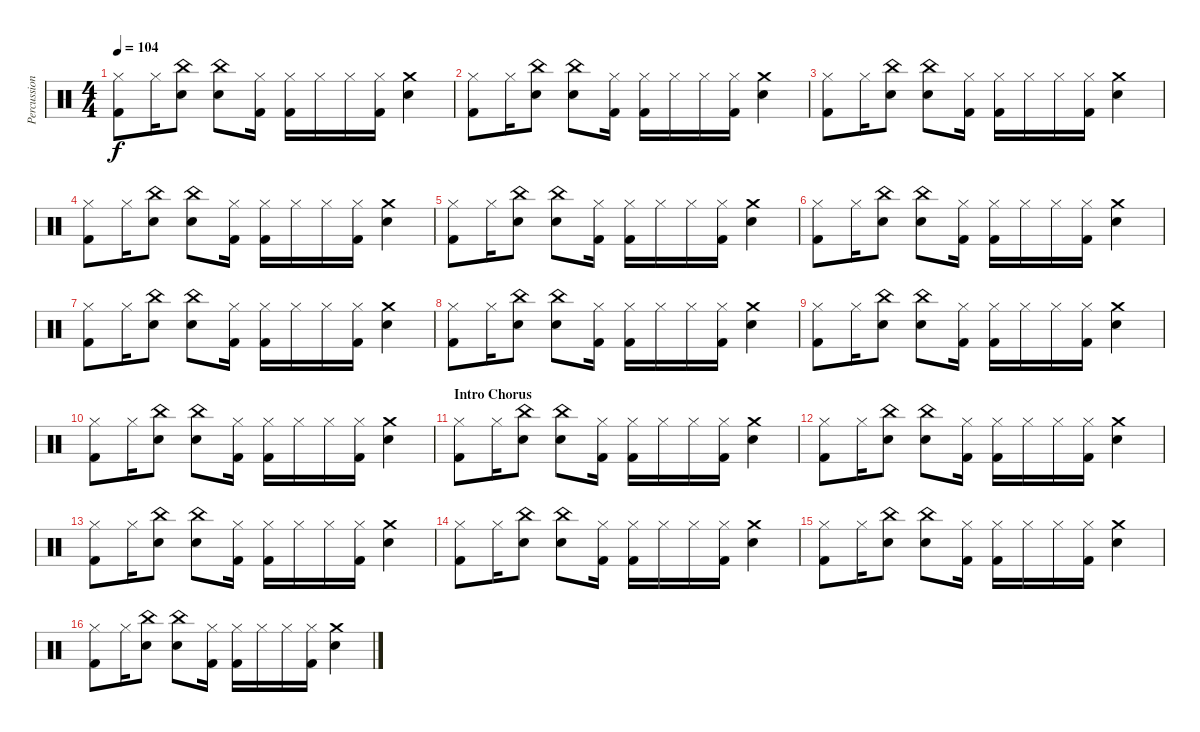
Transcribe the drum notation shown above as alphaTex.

\track ("Percussion" "Percussion") {instrument percussion}
\staff {score}
\articulation defaults
\ts (4 4)
\tempo 104
\clef neutral
\ks c
("Hi-Hat (closed)" "Kick (hit) 2").8{dy f} "Hi-Hat (closed)".16 ("Snare (hit) 2" "China (hit)").8 ("Snare (hit) 2" "China (hit)").8 ("Hi-Hat (closed)" "Kick (hit) 2").16 ("Hi-Hat (closed)" "Kick (hit) 2").16 "Hi-Hat (closed)".16 "Hi-Hat (closed)".16 ("Hi-Hat (closed)" "Kick (hit) 2").16 ("Crash medium (hit)" "Snare (hit) 2").4 |
("Hi-Hat (closed)" "Kick (hit) 2").8 "Hi-Hat (closed)".16 ("Snare (hit) 2" "China (hit)").8 ("Snare (hit) 2" "China (hit)").8 ("Hi-Hat (closed)" "Kick (hit) 2").16 ("Hi-Hat (closed)" "Kick (hit) 2").16 "Hi-Hat (closed)".16 "Hi-Hat (closed)".16 ("Hi-Hat (closed)" "Kick (hit) 2").16 ("Crash medium (hit)" "Snare (hit) 2").4 |
("Hi-Hat (closed)" "Kick (hit) 2").8 "Hi-Hat (closed)".16 ("Snare (hit) 2" "China (hit)").8 ("Snare (hit) 2" "China (hit)").8 ("Hi-Hat (closed)" "Kick (hit) 2").16 ("Hi-Hat (closed)" "Kick (hit) 2").16 "Hi-Hat (closed)".16 "Hi-Hat (closed)".16 ("Hi-Hat (closed)" "Kick (hit) 2").16 ("Crash medium (hit)" "Snare (hit) 2").4 |
("Hi-Hat (closed)" "Kick (hit) 2").8 "Hi-Hat (closed)".16 ("Snare (hit) 2" "China (hit)").8 ("Snare (hit) 2" "China (hit)").8 ("Hi-Hat (closed)" "Kick (hit) 2").16 ("Hi-Hat (closed)" "Kick (hit) 2").16 "Hi-Hat (closed)".16 "Hi-Hat (closed)".16 ("Hi-Hat (closed)" "Kick (hit) 2").16 ("Crash medium (hit)" "Snare (hit) 2").4 |
("Hi-Hat (closed)" "Kick (hit) 2").8 "Hi-Hat (closed)".16 ("Snare (hit) 2" "China (hit)").8 ("Snare (hit) 2" "China (hit)").8 ("Hi-Hat (closed)" "Kick (hit) 2").16 ("Hi-Hat (closed)" "Kick (hit) 2").16 "Hi-Hat (closed)".16 "Hi-Hat (closed)".16 ("Hi-Hat (closed)" "Kick (hit) 2").16 ("Crash medium (hit)" "Snare (hit) 2").4 |
("Hi-Hat (closed)" "Kick (hit) 2").8 "Hi-Hat (closed)".16 ("Snare (hit) 2" "China (hit)").8 ("Snare (hit) 2" "China (hit)").8 ("Hi-Hat (closed)" "Kick (hit) 2").16 ("Hi-Hat (closed)" "Kick (hit) 2").16 "Hi-Hat (closed)".16 "Hi-Hat (closed)".16 ("Hi-Hat (closed)" "Kick (hit) 2").16 ("Crash medium (hit)" "Snare (hit) 2").4 |
("Hi-Hat (closed)" "Kick (hit) 2").8 "Hi-Hat (closed)".16 ("Snare (hit) 2" "China (hit)").8 ("Snare (hit) 2" "China (hit)").8 ("Hi-Hat (closed)" "Kick (hit) 2").16 ("Hi-Hat (closed)" "Kick (hit) 2").16 "Hi-Hat (closed)".16 "Hi-Hat (closed)".16 ("Hi-Hat (closed)" "Kick (hit) 2").16 ("Crash medium (hit)" "Snare (hit) 2").4 |
("Hi-Hat (closed)" "Kick (hit) 2").8 "Hi-Hat (closed)".16 ("Snare (hit) 2" "China (hit)").8 ("Snare (hit) 2" "China (hit)").8 ("Hi-Hat (closed)" "Kick (hit) 2").16 ("Hi-Hat (closed)" "Kick (hit) 2").16 "Hi-Hat (closed)".16 "Hi-Hat (closed)".16 ("Hi-Hat (closed)" "Kick (hit) 2").16 ("Crash medium (hit)" "Snare (hit) 2").4 |
("Hi-Hat (closed)" "Kick (hit) 2").8 "Hi-Hat (closed)".16 ("Snare (hit) 2" "China (hit)").8 ("Snare (hit) 2" "China (hit)").8 ("Hi-Hat (closed)" "Kick (hit) 2").16 ("Hi-Hat (closed)" "Kick (hit) 2").16 "Hi-Hat (closed)".16 "Hi-Hat (closed)".16 ("Hi-Hat (closed)" "Kick (hit) 2").16 ("Crash medium (hit)" "Snare (hit) 2").4 |
("Hi-Hat (closed)" "Kick (hit) 2").8 "Hi-Hat (closed)".16 ("Snare (hit) 2" "China (hit)").8 ("Snare (hit) 2" "China (hit)").8 ("Hi-Hat (closed)" "Kick (hit) 2").16 ("Hi-Hat (closed)" "Kick (hit) 2").16 "Hi-Hat (closed)".16 "Hi-Hat (closed)".16 ("Hi-Hat (closed)" "Kick (hit) 2").16 ("Crash medium (hit)" "Snare (hit) 2").4 |
\section ("" "Intro Chorus")
("Hi-Hat (closed)" "Kick (hit) 2").8 "Hi-Hat (closed)".16 ("Snare (hit) 2" "China (hit)").8 ("Snare (hit) 2" "China (hit)").8 ("Hi-Hat (closed)" "Kick (hit) 2").16 ("Hi-Hat (closed)" "Kick (hit) 2").16 "Hi-Hat (closed)".16 "Hi-Hat (closed)".16 ("Hi-Hat (closed)" "Kick (hit) 2").16 ("Crash medium (hit)" "Snare (hit) 2").4 |
("Hi-Hat (closed)" "Kick (hit) 2").8 "Hi-Hat (closed)".16 ("Snare (hit) 2" "China (hit)").8 ("Snare (hit) 2" "China (hit)").8 ("Hi-Hat (closed)" "Kick (hit) 2").16 ("Hi-Hat (closed)" "Kick (hit) 2").16 "Hi-Hat (closed)".16 "Hi-Hat (closed)".16 ("Hi-Hat (closed)" "Kick (hit) 2").16 ("Crash medium (hit)" "Snare (hit) 2").4 |
("Hi-Hat (closed)" "Kick (hit) 2").8 "Hi-Hat (closed)".16 ("Snare (hit) 2" "China (hit)").8 ("Snare (hit) 2" "China (hit)").8 ("Hi-Hat (closed)" "Kick (hit) 2").16 ("Hi-Hat (closed)" "Kick (hit) 2").16 "Hi-Hat (closed)".16 "Hi-Hat (closed)".16 ("Hi-Hat (closed)" "Kick (hit) 2").16 ("Crash medium (hit)" "Snare (hit) 2").4 |
("Hi-Hat (closed)" "Kick (hit) 2").8 "Hi-Hat (closed)".16 ("Snare (hit) 2" "China (hit)").8 ("Snare (hit) 2" "China (hit)").8 ("Hi-Hat (closed)" "Kick (hit) 2").16 ("Hi-Hat (closed)" "Kick (hit) 2").16 "Hi-Hat (closed)".16 "Hi-Hat (closed)".16 ("Hi-Hat (closed)" "Kick (hit) 2").16 ("Crash medium (hit)" "Snare (hit) 2").4 |
("Hi-Hat (closed)" "Kick (hit) 2").8 "Hi-Hat (closed)".16 ("Snare (hit) 2" "China (hit)").8 ("Snare (hit) 2" "China (hit)").8 ("Hi-Hat (closed)" "Kick (hit) 2").16 ("Hi-Hat (closed)" "Kick (hit) 2").16 "Hi-Hat (closed)".16 "Hi-Hat (closed)".16 ("Hi-Hat (closed)" "Kick (hit) 2").16 ("Crash medium (hit)" "Snare (hit) 2").4 |
("Hi-Hat (closed)" "Kick (hit) 2").8 "Hi-Hat (closed)".16 ("Snare (hit) 2" "China (hit)").8 ("Snare (hit) 2" "China (hit)").8 ("Hi-Hat (closed)" "Kick (hit) 2").16 ("Hi-Hat (closed)" "Kick (hit) 2").16 "Hi-Hat (closed)".16 "Hi-Hat (closed)".16 ("Hi-Hat (closed)" "Kick (hit) 2").16 ("Crash medium (hit)" "Snare (hit) 2").4
